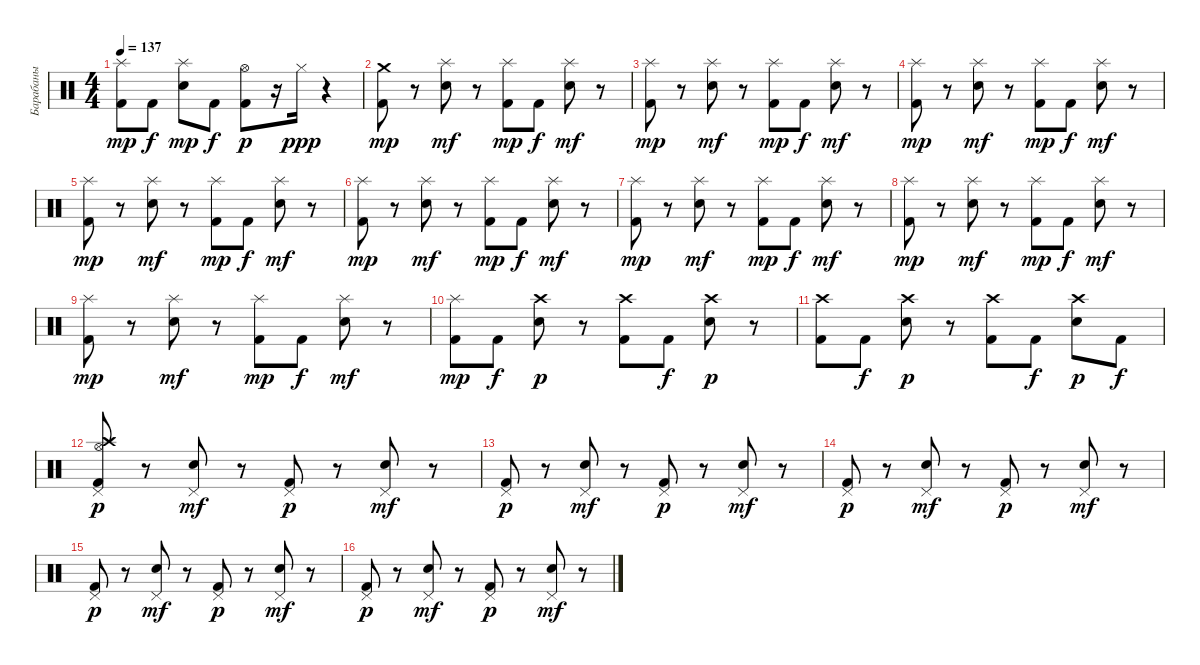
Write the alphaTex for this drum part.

\track ("Барабаны" "Барабаны") {instrument percussion}
\staff {score}
\articulation defaults
\ts (4 4)
\tempo 137
\clef neutral
\ks c
("Splash (hit)" "Kick (hit) 2").8{dy mp} "Kick (hit) 2".8{dy f} ("Splash (hit)" "Electric Snare (hit)").8{dy mp} "Kick (hit) 2".8{dy f} ("Hi-Hat (open)" "Kick (hit) 2").8{dy p} r.16 "Hi-Hat (closed)".16{dy ppp} r.4 |
("Crash medium (hit)" "Kick (hit) 2").8{dy mp} r.8 ("Splash (hit)" "Electric Snare (hit)").8{dy mf} r.8 ("Splash (hit)" "Kick (hit) 2").8{dy mp} "Kick (hit) 2".8{dy f} ("Splash (hit)" "Electric Snare (hit)").8{dy mf} r.8 |
("Splash (hit)" "Kick (hit) 2").8{dy mp} r.8 ("Splash (hit)" "Electric Snare (hit)").8{dy mf} r.8 ("Splash (hit)" "Kick (hit) 2").8{dy mp} "Kick (hit) 2".8{dy f} ("Splash (hit)" "Electric Snare (hit)").8{dy mf} r.8 |
("Splash (hit)" "Kick (hit) 2").8{dy mp} r.8 ("Splash (hit)" "Electric Snare (hit)").8{dy mf} r.8 ("Splash (hit)" "Kick (hit) 2").8{dy mp} "Kick (hit) 2".8{dy f} ("Splash (hit)" "Electric Snare (hit)").8{dy mf} r.8 |
("Splash (hit)" "Kick (hit) 2").8{dy mp} r.8 ("Splash (hit)" "Electric Snare (hit)").8{dy mf} r.8 ("Splash (hit)" "Kick (hit) 2").8{dy mp} "Kick (hit) 2".8{dy f} ("Splash (hit)" "Electric Snare (hit)").8{dy mf} r.8 |
("Splash (hit)" "Kick (hit) 2").8{dy mp} r.8 ("Splash (hit)" "Electric Snare (hit)").8{dy mf} r.8 ("Splash (hit)" "Kick (hit) 2").8{dy mp} "Kick (hit) 2".8{dy f} ("Splash (hit)" "Electric Snare (hit)").8{dy mf} r.8 |
("Splash (hit)" "Kick (hit) 2").8{dy mp} r.8 ("Splash (hit)" "Electric Snare (hit)").8{dy mf} r.8 ("Splash (hit)" "Kick (hit) 2").8{dy mp} "Kick (hit) 2".8{dy f} ("Splash (hit)" "Electric Snare (hit)").8{dy mf} r.8 |
("Splash (hit)" "Kick (hit) 2").8{dy mp} r.8 ("Splash (hit)" "Electric Snare (hit)").8{dy mf} r.8 ("Splash (hit)" "Kick (hit) 2").8{dy mp} "Kick (hit) 2".8{dy f} ("Splash (hit)" "Electric Snare (hit)").8{dy mf} r.8 |
("Splash (hit)" "Kick (hit) 2").8{dy mp} r.8 ("Splash (hit)" "Electric Snare (hit)").8{dy mf} r.8 ("Splash (hit)" "Kick (hit) 2").8{dy mp} "Kick (hit) 2".8{dy f} ("Splash (hit)" "Electric Snare (hit)").8{dy mf} r.8 |
("Splash (hit)" "Kick (hit) 2").8{dy mp} "Kick (hit) 2".8{dy f} ("Crash high (hit)" "Electric Snare (hit)").8{dy p} r.8 ("Crash high (hit)" "Kick (hit) 2").8 "Kick (hit) 2".8{dy f} ("Crash high (hit)" "Electric Snare (hit)").8{dy p} r.8 |
("Crash high (hit)" "Kick (hit) 2").8 "Kick (hit) 2".8{dy f} ("Crash high (hit)" "Electric Snare (hit)").8{dy p} r.8 ("Crash high (hit)" "Kick (hit) 2").8 "Kick (hit) 2".8{dy f} ("Crash high (hit)" "Electric Snare (hit)").8{dy p} "Kick (hit) 2".8{dy f} |
("Pedal Hi-Hat (hit)" "Kick (hit) 2" "Hi-Hat (open)" "Crash high (hit)").8{dy p} r.8 ("Pedal Hi-Hat (hit)" "Electric Snare (hit)").8{dy mf} r.8 ("Pedal Hi-Hat (hit)" "Kick (hit) 2").8{dy p} r.8 ("Pedal Hi-Hat (hit)" "Electric Snare (hit)").8{dy mf} r.8 |
("Pedal Hi-Hat (hit)" "Kick (hit) 2").8{dy p} r.8 ("Pedal Hi-Hat (hit)" "Electric Snare (hit)").8{dy mf} r.8 ("Pedal Hi-Hat (hit)" "Kick (hit) 2").8{dy p} r.8 ("Pedal Hi-Hat (hit)" "Electric Snare (hit)").8{dy mf} r.8 |
("Pedal Hi-Hat (hit)" "Kick (hit) 2").8{dy p} r.8 ("Pedal Hi-Hat (hit)" "Electric Snare (hit)").8{dy mf} r.8 ("Pedal Hi-Hat (hit)" "Kick (hit) 2").8{dy p} r.8 ("Pedal Hi-Hat (hit)" "Electric Snare (hit)").8{dy mf} r.8 |
("Pedal Hi-Hat (hit)" "Kick (hit) 2").8{dy p} r.8 ("Pedal Hi-Hat (hit)" "Electric Snare (hit)").8{dy mf} r.8 ("Pedal Hi-Hat (hit)" "Kick (hit) 2").8{dy p} r.8 ("Pedal Hi-Hat (hit)" "Electric Snare (hit)").8{dy mf} r.8 |
("Pedal Hi-Hat (hit)" "Kick (hit) 2").8{dy p} r.8 ("Pedal Hi-Hat (hit)" "Electric Snare (hit)").8{dy mf} r.8 ("Pedal Hi-Hat (hit)" "Kick (hit) 2").8{dy p} r.8 ("Pedal Hi-Hat (hit)" "Electric Snare (hit)").8{dy mf} r.8
